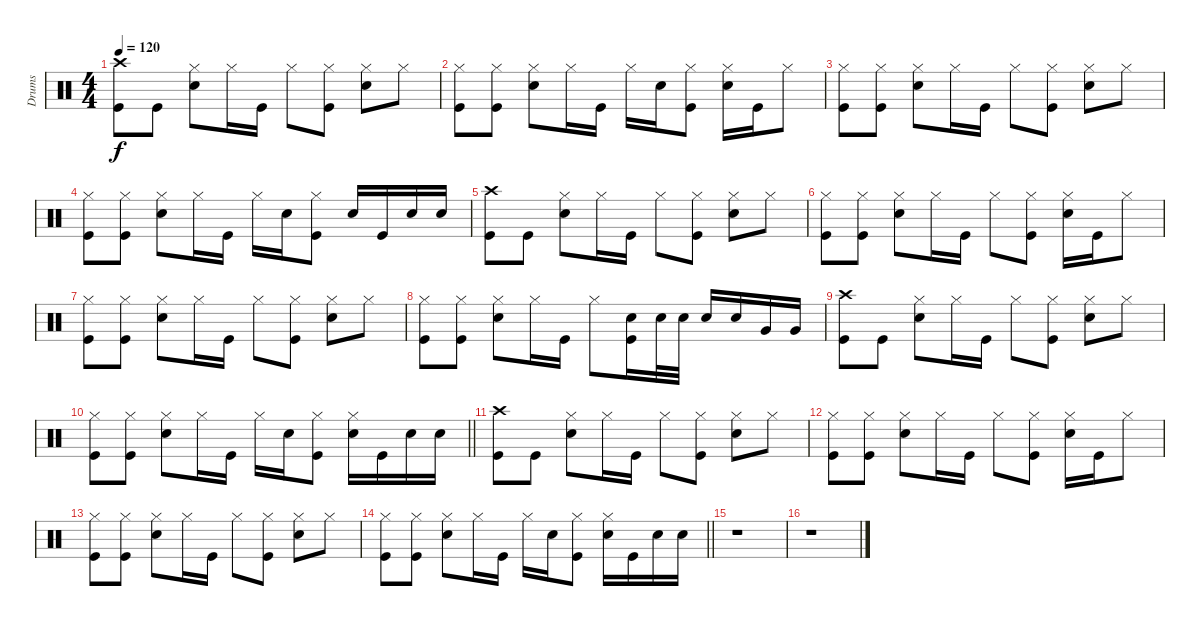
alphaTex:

\track ("Drums" "Drums") {instrument percussion}
\staff {score}
\articulation defaults
\ts (4 4)
\tempo 120
\clef neutral
\ks c
("Crash high (hit)" "Kick (hit)").8{dy f} "Kick (hit)".8 ("Snare (hit) 2" "Hi-Hat (closed)").8 "Hi-Hat (closed)".16 "Kick (hit)".16 "Hi-Hat (closed)".8 ("Kick (hit)" "Hi-Hat (closed)").8 ("Snare (hit) 2" "Hi-Hat (closed)").8 "Hi-Hat (closed)".8 |
("Hi-Hat (closed)" "Kick (hit)").8 ("Hi-Hat (closed)" "Kick (hit)").8 ("Hi-Hat (closed)" "Snare (hit) 2").8 "Hi-Hat (closed)".16 "Kick (hit)".16 "Hi-Hat (closed)".16 "Snare (hit) 2".16 ("Hi-Hat (closed)" "Kick (hit)").8 ("Snare (hit) 2" "Hi-Hat (closed)").16 "Kick (hit)".16 "Hi-Hat (closed)".8 |
("Kick (hit)" "Hi-Hat (closed)").8 ("Kick (hit)" "Hi-Hat (closed)").8 ("Snare (hit) 2" "Hi-Hat (closed)").8 "Hi-Hat (closed)".16 "Kick (hit)".16 "Hi-Hat (closed)".8 ("Kick (hit)" "Hi-Hat (closed)").8 ("Snare (hit) 2" "Hi-Hat (closed)").8 "Hi-Hat (closed)".8 |
("Hi-Hat (closed)" "Kick (hit)").8 ("Hi-Hat (closed)" "Kick (hit)").8 ("Hi-Hat (closed)" "Snare (hit) 2").8 "Hi-Hat (closed)".16 "Kick (hit)".16 "Hi-Hat (closed)".16 "Snare (hit) 2".16 ("Hi-Hat (closed)" "Kick (hit)").8 "Snare (hit) 2".16 "Kick (hit)".16 "Snare (hit) 2".16 "Snare (hit) 2".16 |
("Crash high (hit)" "Kick (hit)").8 "Kick (hit)".8 ("Snare (hit) 2" "Hi-Hat (closed)").8 "Hi-Hat (closed)".16 "Kick (hit)".16 "Hi-Hat (closed)".8 ("Kick (hit)" "Hi-Hat (closed)").8 ("Snare (hit) 2" "Hi-Hat (closed)").8 "Hi-Hat (closed)".8 |
("Hi-Hat (closed)" "Kick (hit)").8 ("Hi-Hat (closed)" "Kick (hit)").8 ("Hi-Hat (closed)" "Snare (hit) 2").8 "Hi-Hat (closed)".16 "Kick (hit)".16 "Hi-Hat (closed)".8 ("Hi-Hat (closed)" "Kick (hit)").8 ("Snare (hit) 2" "Hi-Hat (closed)").16 "Kick (hit)".16 "Hi-Hat (closed)".8 |
("Kick (hit)" "Hi-Hat (closed)").8 ("Kick (hit)" "Hi-Hat (closed)").8 ("Snare (hit) 2" "Hi-Hat (closed)").8 "Hi-Hat (closed)".16 "Kick (hit)".16 "Hi-Hat (closed)".8 ("Kick (hit)" "Hi-Hat (closed)").8 ("Snare (hit) 2" "Hi-Hat (closed)").8 "Hi-Hat (closed)".8 |
("Hi-Hat (closed)" "Kick (hit)").8 ("Hi-Hat (closed)" "Kick (hit)").8 ("Hi-Hat (closed)" "Snare (hit) 2").8 "Hi-Hat (closed)".16 "Kick (hit)".16 "Hi-Hat (closed)".8 ("Snare (hit) 2" "Kick (hit)").16 "Snare (hit) 2".32 "Snare (hit) 2".32 "Snare (hit) 2".16 "Snare (hit) 2".16 "Very Low Tom (hit)".16 "Very Low Tom (hit)".16 |
("Crash high (hit)" "Kick (hit)").8 "Kick (hit)".8 ("Snare (hit) 2" "Hi-Hat (closed)").8 "Hi-Hat (closed)".16 "Kick (hit)".16 "Hi-Hat (closed)".8 ("Kick (hit)" "Hi-Hat (closed)").8 ("Snare (hit) 2" "Hi-Hat (closed)").8 "Hi-Hat (closed)".8 |
\barLineRight lightlight
("Hi-Hat (closed)" "Kick (hit)").8 ("Hi-Hat (closed)" "Kick (hit)").8 ("Hi-Hat (closed)" "Snare (hit) 2").8 "Hi-Hat (closed)".16 "Kick (hit)".16 "Hi-Hat (closed)".16 "Snare (hit) 2".16 ("Hi-Hat (closed)" "Kick (hit)").8 ("Hi-Hat (closed)" "Snare (hit) 2").16 "Kick (hit)".16 "Snare (hit) 2".16 "Snare (hit) 2".16 |
("Crash high (hit)" "Kick (hit)").8 "Kick (hit)".8 ("Snare (hit) 2" "Hi-Hat (closed)").8 "Hi-Hat (closed)".16 "Kick (hit)".16 "Hi-Hat (closed)".8 ("Kick (hit)" "Hi-Hat (closed)").8 ("Snare (hit) 2" "Hi-Hat (closed)").8 "Hi-Hat (closed)".8 |
("Hi-Hat (closed)" "Kick (hit)").8 ("Hi-Hat (closed)" "Kick (hit)").8 ("Hi-Hat (closed)" "Snare (hit) 2").8 "Hi-Hat (closed)".16 "Kick (hit)".16 "Hi-Hat (closed)".8 ("Hi-Hat (closed)" "Kick (hit)").8 ("Snare (hit) 2" "Hi-Hat (closed)").16 "Kick (hit)".16 "Hi-Hat (closed)".8 |
("Kick (hit)" "Hi-Hat (closed)").8 ("Kick (hit)" "Hi-Hat (closed)").8 ("Snare (hit) 2" "Hi-Hat (closed)").8 "Hi-Hat (closed)".16 "Kick (hit)".16 "Hi-Hat (closed)".8 ("Kick (hit)" "Hi-Hat (closed)").8 ("Snare (hit) 2" "Hi-Hat (closed)").8 "Hi-Hat (closed)".8 |
\barLineRight lightlight
("Hi-Hat (closed)" "Kick (hit)").8 ("Hi-Hat (closed)" "Kick (hit)").8 ("Hi-Hat (closed)" "Snare (hit) 2").8 "Hi-Hat (closed)".16 "Kick (hit)".16 "Hi-Hat (closed)".16 "Snare (hit) 2".16 ("Hi-Hat (closed)" "Kick (hit)").8 ("Hi-Hat (closed)" "Snare (hit) 2").16 "Kick (hit)".16 "Snare (hit) 2".16 "Snare (hit) 2".16 |
r.1 |
r.1
